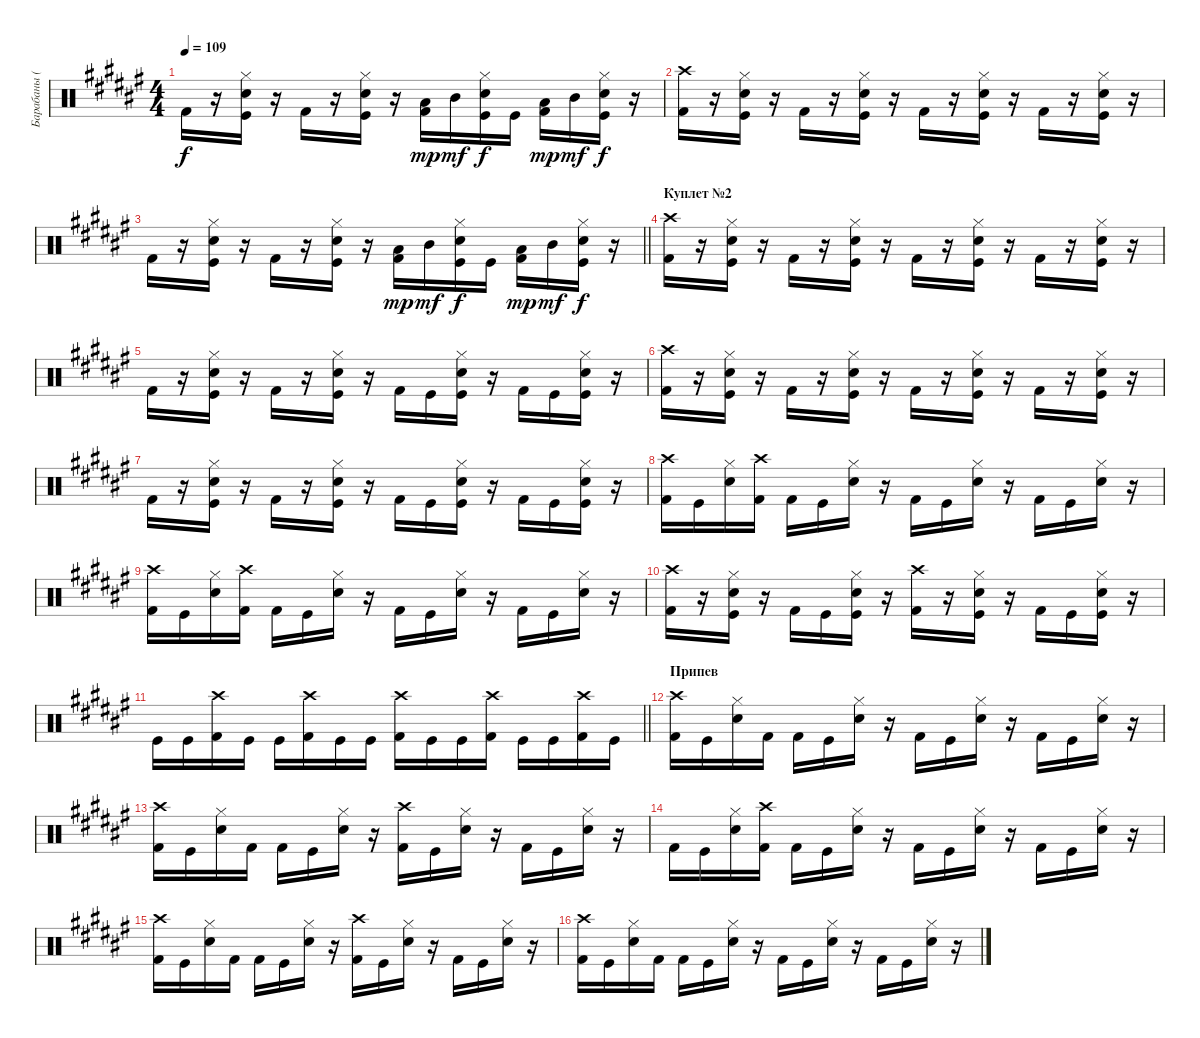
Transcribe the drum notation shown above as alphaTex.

\track ("Барабаны (Н.Лысов)" "Барабаны (") {instrument percussion}
\staff {score}
\articulation defaults
\ts (4 4)
\tempo 109
\clef neutral
\ks f# "Kick (hit) 2".16{dy f}
r.16 ("Hi-Hat (closed)" "Snare (hit) 2" "Kick (hit)").16 r.16 "Kick (hit) 2".16 r.16 ("Hi-Hat (closed)" "Snare (hit) 2" "Kick (hit)").16 r.16 ("Low Tom (hit)" "Kick (hit) 2").16{dy mp} "Mid Tom (hit)".16{dy mf} ("Hi-Hat (closed)" "Snare (hit) 2" "Kick (hit)").16{dy f} "Kick (hit)".16 ("Low Tom (hit)" "Kick (hit) 2").16{dy mp} "Mid Tom (hit)".16{dy mf} ("Hi-Hat (closed)" "Snare (hit) 2" "Kick (hit)").16{dy f} r.16 |
("Crash high (hit)" "Kick (hit) 2").16 r.16 ("Hi-Hat (closed)" "Snare (hit) 2" "Kick (hit)").16 r.16 "Kick (hit) 2".16 r.16 ("Hi-Hat (closed)" "Snare (hit) 2" "Kick (hit)").16 r.16 "Kick (hit) 2".16 r.16 ("Hi-Hat (closed)" "Snare (hit) 2" "Kick (hit)").16 r.16 "Kick (hit) 2".16 r.16 ("Hi-Hat (closed)" "Snare (hit) 2" "Kick (hit)").16 r.16 |
\barLineRight lightlight "Kick (hit) 2".16
r.16 ("Hi-Hat (closed)" "Snare (hit) 2" "Kick (hit)").16 r.16 "Kick (hit) 2".16 r.16 ("Hi-Hat (closed)" "Snare (hit) 2" "Kick (hit)").16 r.16 ("Low Tom (hit)" "Kick (hit) 2").16{dy mp} "Mid Tom (hit)".16{dy mf} ("Hi-Hat (closed)" "Snare (hit) 2" "Kick (hit)").16{dy f} "Kick (hit)".16 ("Low Tom (hit)" "Kick (hit) 2").16{dy mp} "Mid Tom (hit)".16{dy mf} ("Hi-Hat (closed)" "Snare (hit) 2" "Kick (hit)").16{dy f} r.16 |
\section ("" "Куплет №2")
("Crash high (hit)" "Kick (hit) 2").16 r.16 ("Hi-Hat (closed)" "Snare (hit) 2" "Kick (hit)").16 r.16 "Kick (hit) 2".16 r.16 ("Hi-Hat (closed)" "Snare (hit) 2" "Kick (hit)").16 r.16 "Kick (hit) 2".16 r.16 ("Hi-Hat (closed)" "Snare (hit) 2" "Kick (hit)").16 r.16 "Kick (hit) 2".16 r.16 ("Hi-Hat (closed)" "Snare (hit) 2" "Kick (hit)").16 r.16 |
"Kick (hit) 2".16 r.16 ("Hi-Hat (closed)" "Snare (hit) 2" "Kick (hit)").16 r.16 "Kick (hit) 2".16 r.16 ("Hi-Hat (closed)" "Snare (hit) 2" "Kick (hit)").16 r.16 "Kick (hit) 2".16 "Kick (hit)".16 ("Hi-Hat (closed)" "Snare (hit) 2" "Kick (hit)").16 r.16 "Kick (hit) 2".16 "Kick (hit)".16 ("Hi-Hat (closed)" "Snare (hit) 2" "Kick (hit)").16 r.16 |
("Crash high (hit)" "Kick (hit) 2").16 r.16 ("Hi-Hat (closed)" "Snare (hit) 2" "Kick (hit)").16 r.16 "Kick (hit) 2".16 r.16 ("Hi-Hat (closed)" "Snare (hit) 2" "Kick (hit)").16 r.16 "Kick (hit) 2".16 r.16 ("Hi-Hat (closed)" "Snare (hit) 2" "Kick (hit)").16 r.16 "Kick (hit) 2".16 r.16 ("Hi-Hat (closed)" "Snare (hit) 2" "Kick (hit)").16 r.16 |
"Kick (hit) 2".16 r.16 ("Hi-Hat (closed)" "Snare (hit) 2" "Kick (hit)").16 r.16 "Kick (hit) 2".16 r.16 ("Hi-Hat (closed)" "Snare (hit) 2" "Kick (hit)").16 r.16 "Kick (hit) 2".16 "Kick (hit)".16 ("Hi-Hat (closed)" "Snare (hit) 2" "Kick (hit)").16 r.16 "Kick (hit) 2".16 "Kick (hit)".16 ("Hi-Hat (closed)" "Snare (hit) 2" "Kick (hit)").16 r.16 |
("Crash high (hit)" "Kick (hit) 2").16 "Kick (hit)".16 ("Hi-Hat (closed)" "Snare (hit) 2").16 ("Crash high (hit)" "Kick (hit) 2").16 "Kick (hit) 2".16 "Kick (hit)".16 ("Hi-Hat (closed)" "Snare (hit) 2").16 r.16 "Kick (hit) 2".16 "Kick (hit)".16 ("Hi-Hat (closed)" "Snare (hit) 2").16 r.16 "Kick (hit) 2".16 "Kick (hit)".16 ("Hi-Hat (closed)" "Snare (hit) 2").16 r.16 |
("Crash high (hit)" "Kick (hit) 2").16 "Kick (hit)".16 ("Hi-Hat (closed)" "Snare (hit) 2").16 ("Crash high (hit)" "Kick (hit) 2").16 "Kick (hit) 2".16 "Kick (hit)".16 ("Hi-Hat (closed)" "Snare (hit) 2").16 r.16 "Kick (hit) 2".16 "Kick (hit)".16 ("Hi-Hat (closed)" "Snare (hit) 2").16 r.16 "Kick (hit) 2".16 "Kick (hit)".16 ("Hi-Hat (closed)" "Snare (hit) 2").16 r.16 |
("Crash high (hit)" "Kick (hit) 2").16 r.16 ("Hi-Hat (closed)" "Snare (hit) 2" "Kick (hit)").16 r.16 "Kick (hit) 2".16 "Kick (hit)".16 ("Hi-Hat (closed)" "Snare (hit) 2" "Kick (hit)").16 r.16 ("Crash high (hit)" "Kick (hit) 2").16 r.16 ("Hi-Hat (closed)" "Snare (hit) 2" "Kick (hit)").16 r.16 "Kick (hit) 2".16 "Kick (hit)".16 ("Hi-Hat (closed)" "Snare (hit) 2" "Kick (hit)").16 r.16 |
\barLineRight lightlight "Kick (hit)".16 "Kick (hit)".16
("Crash high (hit)" "Kick (hit) 2").16 "Kick (hit)".16 "Kick (hit)".16 ("Crash high (hit)" "Kick (hit) 2").16 "Kick (hit)".16 "Kick (hit)".16 ("Crash high (hit)" "Kick (hit) 2").16 "Kick (hit)".16 "Kick (hit)".16 ("Crash high (hit)" "Kick (hit) 2").16 "Kick (hit)".16 "Kick (hit)".16 ("Crash high (hit)" "Kick (hit) 2").16 "Kick (hit)".16 |
\section ("" "Припев")
("Crash high (hit)" "Kick (hit) 2").16 "Kick (hit)".16 ("Hi-Hat (closed)" "Snare (hit) 2").16 "Kick (hit) 2".16 "Kick (hit) 2".16 "Kick (hit)".16 ("Hi-Hat (closed)" "Snare (hit) 2").16 r.16 "Kick (hit) 2".16 "Kick (hit)".16 ("Hi-Hat (closed)" "Snare (hit) 2").16 r.16 "Kick (hit) 2".16 "Kick (hit)".16 ("Hi-Hat (closed)" "Snare (hit) 2").16 r.16 |
("Crash high (hit)" "Kick (hit) 2").16 "Kick (hit)".16 ("Hi-Hat (closed)" "Snare (hit) 2").16 "Kick (hit) 2".16 "Kick (hit) 2".16 "Kick (hit)".16 ("Hi-Hat (closed)" "Snare (hit) 2").16 r.16 ("Crash high (hit)" "Kick (hit) 2").16 "Kick (hit)".16 ("Hi-Hat (closed)" "Snare (hit) 2").16 r.16 "Kick (hit) 2".16 "Kick (hit)".16 ("Hi-Hat (closed)" "Snare (hit) 2").16 r.16 |
"Kick (hit) 2".16 "Kick (hit)".16 ("Hi-Hat (closed)" "Snare (hit) 2").16 ("Crash high (hit)" "Kick (hit) 2").16 "Kick (hit) 2".16 "Kick (hit)".16 ("Hi-Hat (closed)" "Snare (hit) 2").16 r.16 "Kick (hit) 2".16 "Kick (hit)".16 ("Hi-Hat (closed)" "Snare (hit) 2").16 r.16 "Kick (hit) 2".16 "Kick (hit)".16 ("Hi-Hat (closed)" "Snare (hit) 2").16 r.16 |
("Crash high (hit)" "Kick (hit) 2").16 "Kick (hit)".16 ("Hi-Hat (closed)" "Snare (hit) 2").16 "Kick (hit) 2".16 "Kick (hit) 2".16 "Kick (hit)".16 ("Hi-Hat (closed)" "Snare (hit) 2").16 r.16 ("Crash high (hit)" "Kick (hit) 2").16 "Kick (hit)".16 ("Hi-Hat (closed)" "Snare (hit) 2").16 r.16 "Kick (hit) 2".16 "Kick (hit)".16 ("Hi-Hat (closed)" "Snare (hit) 2").16 r.16 |
("Crash high (hit)" "Kick (hit) 2").16 "Kick (hit)".16 ("Hi-Hat (closed)" "Snare (hit) 2").16 "Kick (hit) 2".16 "Kick (hit) 2".16 "Kick (hit)".16 ("Hi-Hat (closed)" "Snare (hit) 2").16 r.16 "Kick (hit) 2".16 "Kick (hit)".16 ("Hi-Hat (closed)" "Snare (hit) 2").16 r.16 "Kick (hit) 2".16 "Kick (hit)".16 ("Hi-Hat (closed)" "Snare (hit) 2").16 r.16
